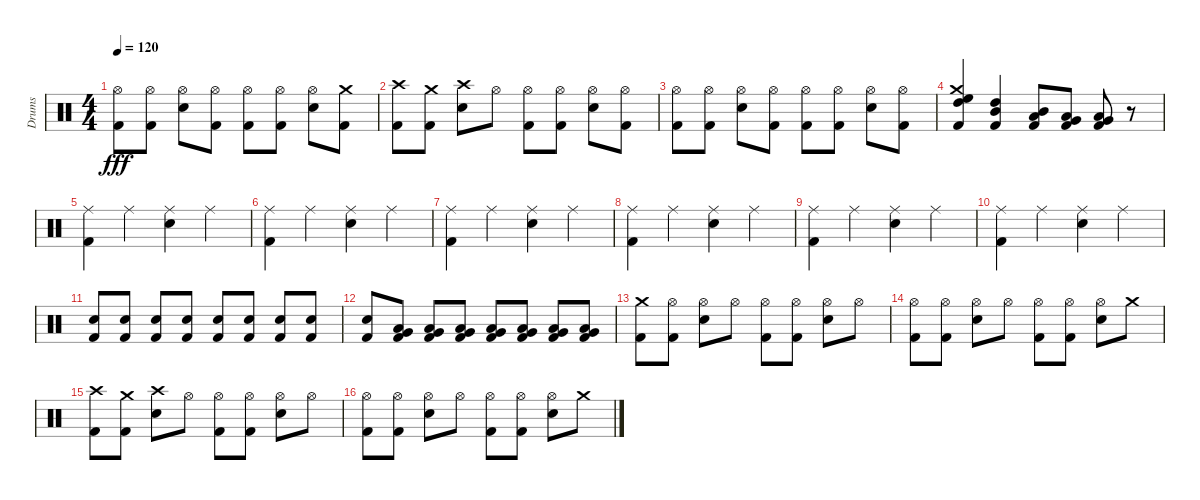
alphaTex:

\track ("Drums" "Drums") {instrument percussion}
\staff {score}
\articulation defaults
\ts (4 4)
\tempo 120
\clef neutral
\ks c
("Hi-Hat (open)" "Kick (hit) 2").8{dy fff} ("Hi-Hat (open)" "Kick (hit) 2").8 ("Hi-Hat (open)" "Electric Snare (hit)").8 ("Kick (hit) 2" "Hi-Hat (open)").8 ("Hi-Hat (open)" "Kick (hit) 2").8 ("Hi-Hat (open)" "Kick (hit) 2").8 ("Hi-Hat (open)" "Electric Snare (hit)").8 ("Crash medium (hit)" "Kick (hit) 2").8 |
("Kick (hit) 2" "Crash high (hit)").8 ("Crash medium (hit)" "Kick (hit) 2").8 ("Crash high (hit)" "Electric Snare (hit)").8 "Hi-Hat (open)".8 ("Hi-Hat (open)" "Kick (hit) 2").8 ("Hi-Hat (open)" "Kick (hit) 2").8 ("Hi-Hat (open)" "Electric Snare (hit)").8 ("Hi-Hat (open)" "Kick (hit) 2").8 |
("Hi-Hat (open)" "Kick (hit) 2").8 ("Hi-Hat (open)" "Kick (hit) 2").8 ("Hi-Hat (open)" "Electric Snare (hit)").8 ("Hi-Hat (open)" "Kick (hit) 2").8 ("Hi-Hat (open)" "Kick (hit) 2").8 ("Hi-Hat (open)" "Kick (hit) 2").8 ("Hi-Hat (open)" "Electric Snare (hit)").8 ("Kick (hit) 2" "Hi-Hat (open)").8 |
("High Floor Tom (hit)" "High Tom (hit)" "Kick (hit) 2" "Crash medium (hit)").4 ("High Tom (hit)" "Kick (hit) 2" "Mid Tom (hit)").4 ("Mid Tom (hit)" "Kick (hit) 2" "Low Tom (hit)").8 ("Low Tom (hit)" "Kick (hit) 2" "Very Low Tom (hit)").8 ("Very Low Tom (hit)" "Kick (hit) 2" "Low Floor Tom (hit)").8 r.8 |
("Kick (hit) 2" "Ride (middle)").4 "Ride (middle)".4 ("Electric Snare (hit)" "Ride (middle)").4 "Ride (middle)".4 |
("Kick (hit) 2" "Ride (middle)").4 "Ride (middle)".4 ("Electric Snare (hit)" "Ride (middle)").4 "Ride (middle)".4 |
("Kick (hit) 2" "Ride (middle)").4 "Ride (middle)".4 ("Electric Snare (hit)" "Ride (middle)").4 "Ride (middle)".4 |
("Kick (hit) 2" "Ride (middle)").4 "Ride (middle)".4 ("Electric Snare (hit)" "Ride (middle)").4 "Ride (middle)".4 |
("Kick (hit) 2" "Ride (middle)").4 "Ride (middle)".4 ("Electric Snare (hit)" "Ride (middle)").4 "Ride (middle)".4 |
("Kick (hit) 2" "Ride (middle)").4 "Ride (middle)".4 ("Electric Snare (hit)" "Ride (middle)").4 "Ride (middle)".4 |
("Kick (hit) 2" "Electric Snare (hit)").8 ("Electric Snare (hit)" "Kick (hit) 2").8 ("Electric Snare (hit)" "Kick (hit) 2").8 ("Electric Snare (hit)" "Kick (hit) 2").8 ("Electric Snare (hit)" "Kick (hit) 2").8 ("Electric Snare (hit)" "Kick (hit) 2").8 ("Electric Snare (hit)" "Kick (hit) 2").8 ("Electric Snare (hit)" "Kick (hit) 2").8 |
("Electric Snare (hit)" "Kick (hit) 2").8 ("Low Tom (hit)" "Kick (hit) 2" "Very Low Tom (hit)").8 ("Kick (hit) 2" "Very Low Tom (hit)" "Low Tom (hit)").8 ("Low Tom (hit)" "Very Low Tom (hit)" "Kick (hit) 2").8 ("Low Floor Tom (hit)" "Kick (hit) 2" "Very Low Tom (hit)").8 ("Low Floor Tom (hit)" "Kick (hit) 2" "Very Low Tom (hit)").8 ("Low Floor Tom (hit)" "Kick (hit) 2" "Very Low Tom (hit)").8 ("Kick (hit) 2" "Very Low Tom (hit)" "Low Floor Tom (hit)").8 |
("Kick (hit) 2" "Crash medium (hit)").8 ("Hi-Hat (open)" "Kick (hit) 2").8 ("Hi-Hat (open)" "Electric Snare (hit)").8 "Hi-Hat (open)".8 ("Hi-Hat (open)" "Kick (hit) 2").8 ("Hi-Hat (open)" "Kick (hit) 2").8 ("Hi-Hat (open)" "Electric Snare (hit)").8 "Hi-Hat (open)".8 |
("Hi-Hat (open)" "Kick (hit) 2").8 ("Hi-Hat (open)" "Kick (hit) 2").8 ("Hi-Hat (open)" "Electric Snare (hit)").8 "Hi-Hat (open)".8 ("Hi-Hat (open)" "Kick (hit) 2").8 ("Hi-Hat (open)" "Kick (hit) 2").8 ("Hi-Hat (open)" "Electric Snare (hit)").8 "Crash medium (hit)".8 |
("Kick (hit) 2" "Crash high (hit)").8 ("Kick (hit) 2" "Crash medium (hit)").8 ("Electric Snare (hit)" "Crash high (hit)").8 "Hi-Hat (open)".8 ("Kick (hit) 2" "Hi-Hat (open)").8 ("Kick (hit) 2" "Hi-Hat (open)").8 ("Electric Snare (hit)" "Hi-Hat (open)").8 "Hi-Hat (open)".8 |
("Hi-Hat (open)" "Kick (hit) 2").8 ("Hi-Hat (open)" "Kick (hit) 2").8 ("Hi-Hat (open)" "Electric Snare (hit)").8 "Hi-Hat (open)".8 ("Hi-Hat (open)" "Kick (hit) 2").8 ("Hi-Hat (open)" "Kick (hit) 2").8 ("Hi-Hat (open)" "Electric Snare (hit)").8 "Crash medium (hit)".8
